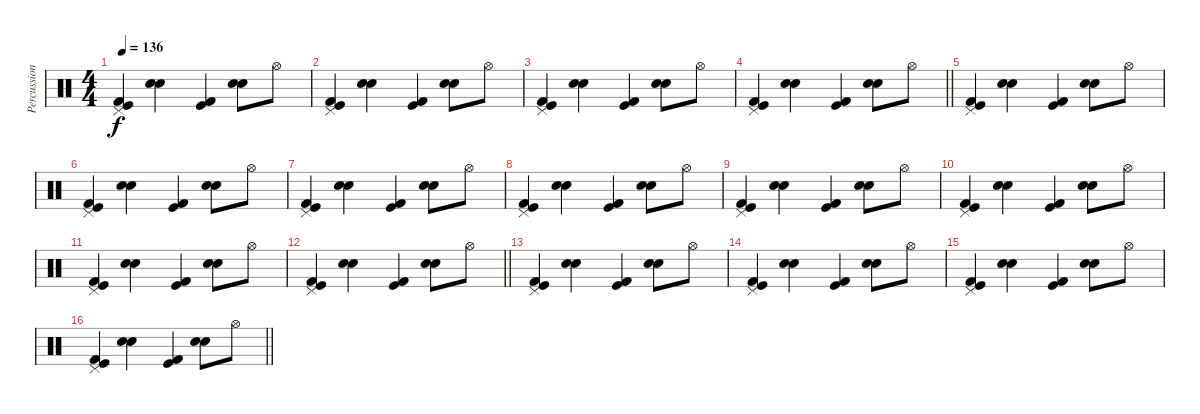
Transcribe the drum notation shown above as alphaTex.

\track ("Percussion" "Percussion") {instrument percussion}
\staff {score}
\articulation defaults
\ts (4 4)
\tempo 136
\clef neutral
\ks c
("Pedal Hi-Hat (hit)" "Kick (hit)" "Kick (hit) 2").4{dy f} ("Snare (hit) 2" "Electric Snare (hit)").4 ("Kick (hit)" "Kick (hit) 2").4 ("Snare (hit) 2" "Electric Snare (hit)").8 "Hi-Hat (open)".8 |
("Pedal Hi-Hat (hit)" "Kick (hit)" "Kick (hit) 2").4 ("Snare (hit) 2" "Electric Snare (hit)").4 ("Kick (hit)" "Kick (hit) 2").4 ("Snare (hit) 2" "Electric Snare (hit)").8 "Hi-Hat (open)".8 |
("Pedal Hi-Hat (hit)" "Kick (hit)" "Kick (hit) 2").4 ("Snare (hit) 2" "Electric Snare (hit)").4 ("Kick (hit)" "Kick (hit) 2").4 ("Snare (hit) 2" "Electric Snare (hit)").8 "Hi-Hat (open)".8 |
\barLineRight lightlight
("Pedal Hi-Hat (hit)" "Kick (hit)" "Kick (hit) 2").4 ("Snare (hit) 2" "Electric Snare (hit)").4 ("Kick (hit)" "Kick (hit) 2").4 ("Snare (hit) 2" "Electric Snare (hit)").8 "Hi-Hat (open)".8 |
("Pedal Hi-Hat (hit)" "Kick (hit)" "Kick (hit) 2").4 ("Snare (hit) 2" "Electric Snare (hit)").4 ("Kick (hit)" "Kick (hit) 2").4 ("Snare (hit) 2" "Electric Snare (hit)").8 "Hi-Hat (open)".8 |
("Pedal Hi-Hat (hit)" "Kick (hit)" "Kick (hit) 2").4 ("Snare (hit) 2" "Electric Snare (hit)").4 ("Kick (hit)" "Kick (hit) 2").4 ("Snare (hit) 2" "Electric Snare (hit)").8 "Hi-Hat (open)".8 |
("Pedal Hi-Hat (hit)" "Kick (hit)" "Kick (hit) 2").4 ("Snare (hit) 2" "Electric Snare (hit)").4 ("Kick (hit)" "Kick (hit) 2").4 ("Snare (hit) 2" "Electric Snare (hit)").8 "Hi-Hat (open)".8 |
("Pedal Hi-Hat (hit)" "Kick (hit)" "Kick (hit) 2").4 ("Snare (hit) 2" "Electric Snare (hit)").4 ("Kick (hit)" "Kick (hit) 2").4 ("Snare (hit) 2" "Electric Snare (hit)").8 "Hi-Hat (open)".8 |
("Pedal Hi-Hat (hit)" "Kick (hit)" "Kick (hit) 2").4 ("Snare (hit) 2" "Electric Snare (hit)").4 ("Kick (hit)" "Kick (hit) 2").4 ("Snare (hit) 2" "Electric Snare (hit)").8 "Hi-Hat (open)".8 |
("Pedal Hi-Hat (hit)" "Kick (hit)" "Kick (hit) 2").4 ("Snare (hit) 2" "Electric Snare (hit)").4 ("Kick (hit)" "Kick (hit) 2").4 ("Snare (hit) 2" "Electric Snare (hit)").8 "Hi-Hat (open)".8 |
("Pedal Hi-Hat (hit)" "Kick (hit)" "Kick (hit) 2").4 ("Snare (hit) 2" "Electric Snare (hit)").4 ("Kick (hit)" "Kick (hit) 2").4 ("Snare (hit) 2" "Electric Snare (hit)").8 "Hi-Hat (open)".8 |
\barLineRight lightlight
("Pedal Hi-Hat (hit)" "Kick (hit)" "Kick (hit) 2").4 ("Snare (hit) 2" "Electric Snare (hit)").4 ("Kick (hit)" "Kick (hit) 2").4 ("Snare (hit) 2" "Electric Snare (hit)").8 "Hi-Hat (open)".8 |
("Pedal Hi-Hat (hit)" "Kick (hit)" "Kick (hit) 2").4 ("Snare (hit) 2" "Electric Snare (hit)").4 ("Kick (hit)" "Kick (hit) 2").4 ("Snare (hit) 2" "Electric Snare (hit)").8 "Hi-Hat (open)".8 |
("Pedal Hi-Hat (hit)" "Kick (hit)" "Kick (hit) 2").4 ("Snare (hit) 2" "Electric Snare (hit)").4 ("Kick (hit)" "Kick (hit) 2").4 ("Snare (hit) 2" "Electric Snare (hit)").8 "Hi-Hat (open)".8 |
("Pedal Hi-Hat (hit)" "Kick (hit)" "Kick (hit) 2").4 ("Snare (hit) 2" "Electric Snare (hit)").4 ("Kick (hit)" "Kick (hit) 2").4 ("Snare (hit) 2" "Electric Snare (hit)").8 "Hi-Hat (open)".8 |
\barLineRight lightlight
("Pedal Hi-Hat (hit)" "Kick (hit)" "Kick (hit) 2").4 ("Snare (hit) 2" "Electric Snare (hit)").4 ("Kick (hit)" "Kick (hit) 2").4 ("Snare (hit) 2" "Electric Snare (hit)").8 "Hi-Hat (open)".8
